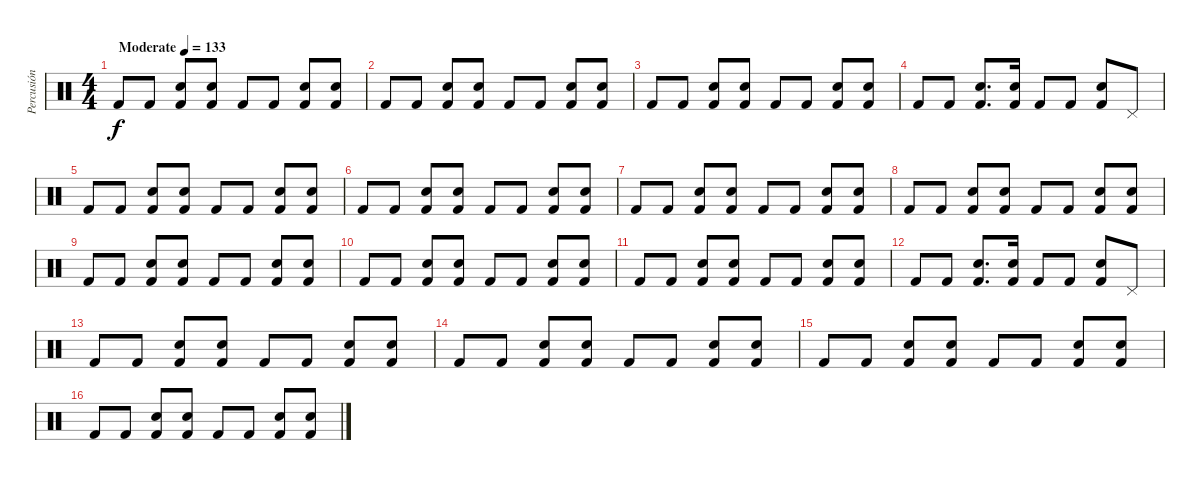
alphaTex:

\track ("Percusión" "Percusión") {instrument percussion}
\staff {score}
\articulation defaults
\ts (4 4)
\tempo (133 "Moderate")
\clef neutral
\ks c "Kick (hit) 2".8{dy f} "Kick (hit) 2".8
("Kick (hit) 2" "Snare (hit) 2").8 ("Kick (hit) 2" "Snare (hit) 2").8 "Kick (hit) 2".8 "Kick (hit) 2".8 ("Kick (hit) 2" "Snare (hit) 2").8 ("Kick (hit) 2" "Snare (hit) 2").8 |
"Kick (hit) 2".8 "Kick (hit) 2".8 ("Kick (hit) 2" "Snare (hit) 2").8 ("Kick (hit) 2" "Snare (hit) 2").8 "Kick (hit) 2".8 "Kick (hit) 2".8 ("Kick (hit) 2" "Snare (hit) 2").8 ("Kick (hit) 2" "Snare (hit) 2").8 |
"Kick (hit) 2".8 "Kick (hit) 2".8 ("Kick (hit) 2" "Snare (hit) 2").8 ("Kick (hit) 2" "Snare (hit) 2").8 "Kick (hit) 2".8 "Kick (hit) 2".8 ("Kick (hit) 2" "Snare (hit) 2").8 ("Kick (hit) 2" "Snare (hit) 2").8 |
"Kick (hit) 2".8 "Kick (hit) 2".8 ("Kick (hit) 2" "Snare (hit) 2").8{d} ("Kick (hit) 2" "Snare (hit) 2").16 "Kick (hit) 2".8 "Kick (hit) 2".8 ("Kick (hit) 2" "Snare (hit) 2").8 "Pedal Hi-Hat (hit)".8 |
"Kick (hit) 2".8 "Kick (hit) 2".8 ("Kick (hit) 2" "Snare (hit) 2").8 ("Kick (hit) 2" "Snare (hit) 2").8 "Kick (hit) 2".8 "Kick (hit) 2".8 ("Kick (hit) 2" "Snare (hit) 2").8 ("Kick (hit) 2" "Snare (hit) 2").8 |
"Kick (hit) 2".8 "Kick (hit) 2".8 ("Kick (hit) 2" "Snare (hit) 2").8 ("Kick (hit) 2" "Snare (hit) 2").8 "Kick (hit) 2".8 "Kick (hit) 2".8 ("Kick (hit) 2" "Snare (hit) 2").8 ("Kick (hit) 2" "Snare (hit) 2").8 |
"Kick (hit) 2".8 "Kick (hit) 2".8 ("Kick (hit) 2" "Snare (hit) 2").8 ("Kick (hit) 2" "Snare (hit) 2").8 "Kick (hit) 2".8 "Kick (hit) 2".8 ("Kick (hit) 2" "Snare (hit) 2").8 ("Kick (hit) 2" "Snare (hit) 2").8 |
"Kick (hit) 2".8 "Kick (hit) 2".8 ("Kick (hit) 2" "Snare (hit) 2").8 ("Kick (hit) 2" "Snare (hit) 2").8 "Kick (hit) 2".8 "Kick (hit) 2".8 ("Kick (hit) 2" "Snare (hit) 2").8 ("Kick (hit) 2" "Snare (hit) 2").8 |
"Kick (hit) 2".8 "Kick (hit) 2".8 ("Kick (hit) 2" "Snare (hit) 2").8 ("Kick (hit) 2" "Snare (hit) 2").8 "Kick (hit) 2".8 "Kick (hit) 2".8 ("Kick (hit) 2" "Snare (hit) 2").8 ("Kick (hit) 2" "Snare (hit) 2").8 |
"Kick (hit) 2".8 "Kick (hit) 2".8 ("Kick (hit) 2" "Snare (hit) 2").8 ("Kick (hit) 2" "Snare (hit) 2").8 "Kick (hit) 2".8 "Kick (hit) 2".8 ("Kick (hit) 2" "Snare (hit) 2").8 ("Kick (hit) 2" "Snare (hit) 2").8 |
"Kick (hit) 2".8 "Kick (hit) 2".8 ("Kick (hit) 2" "Snare (hit) 2").8 ("Kick (hit) 2" "Snare (hit) 2").8 "Kick (hit) 2".8 "Kick (hit) 2".8 ("Kick (hit) 2" "Snare (hit) 2").8 ("Kick (hit) 2" "Snare (hit) 2").8 |
"Kick (hit) 2".8 "Kick (hit) 2".8 ("Kick (hit) 2" "Snare (hit) 2").8{d} ("Kick (hit) 2" "Snare (hit) 2").16 "Kick (hit) 2".8 "Kick (hit) 2".8 ("Kick (hit) 2" "Snare (hit) 2").8 "Pedal Hi-Hat (hit)".8 |
"Kick (hit) 2".8 "Kick (hit) 2".8 ("Kick (hit) 2" "Snare (hit) 2").8 ("Kick (hit) 2" "Snare (hit) 2").8 "Kick (hit) 2".8 "Kick (hit) 2".8 ("Kick (hit) 2" "Snare (hit) 2").8 ("Kick (hit) 2" "Snare (hit) 2").8 |
"Kick (hit) 2".8 "Kick (hit) 2".8 ("Kick (hit) 2" "Snare (hit) 2").8 ("Kick (hit) 2" "Snare (hit) 2").8 "Kick (hit) 2".8 "Kick (hit) 2".8 ("Kick (hit) 2" "Snare (hit) 2").8 ("Kick (hit) 2" "Snare (hit) 2").8 |
"Kick (hit) 2".8 "Kick (hit) 2".8 ("Kick (hit) 2" "Snare (hit) 2").8 ("Kick (hit) 2" "Snare (hit) 2").8 "Kick (hit) 2".8 "Kick (hit) 2".8 ("Kick (hit) 2" "Snare (hit) 2").8 ("Kick (hit) 2" "Snare (hit) 2").8 |
"Kick (hit) 2".8 "Kick (hit) 2".8 ("Kick (hit) 2" "Snare (hit) 2").8 ("Kick (hit) 2" "Snare (hit) 2").8 "Kick (hit) 2".8 "Kick (hit) 2".8 ("Kick (hit) 2" "Snare (hit) 2").8 ("Kick (hit) 2" "Snare (hit) 2").8
